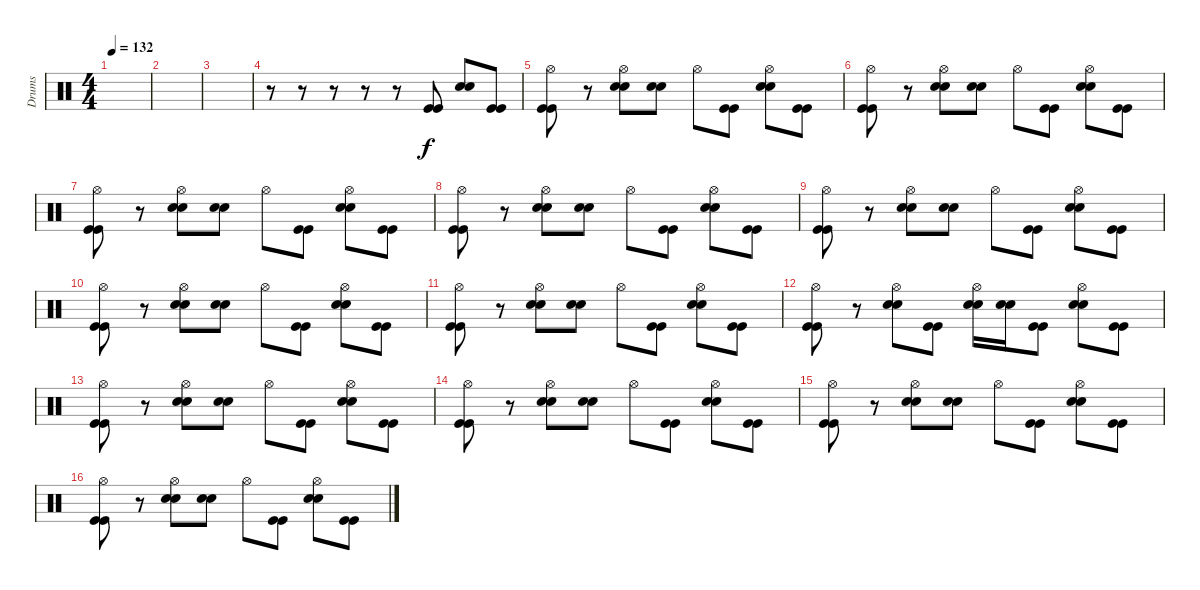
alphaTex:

\track ("Drums" "Drums") {instrument percussion}
\staff {score}
\articulation defaults
\ts (4 4)
\tempo 132
\clef neutral
\ks c
|
|
|
r.8 r.8 r.8 r.8 r.8 ("Kick (hit)" "Kick (hit)").8 ("Electric Snare (hit)" "Electric Snare (hit)").8 ("Kick (hit)" "Kick (hit)").8 |
("Hi-Hat (open)" "Kick (hit)" "Kick (hit)").8 r.8 ("Hi-Hat (open)" "Electric Snare (hit)" "Electric Snare (hit)").8 ("Electric Snare (hit)" "Electric Snare (hit)").8 "Hi-Hat (open)".8 ("Kick (hit)" "Kick (hit)").8 ("Hi-Hat (open)" "Electric Snare (hit)" "Electric Snare (hit)").8 ("Kick (hit)" "Kick (hit)").8 |
("Hi-Hat (open)" "Kick (hit)" "Kick (hit)").8 r.8 ("Hi-Hat (open)" "Electric Snare (hit)" "Electric Snare (hit)").8 ("Electric Snare (hit)" "Electric Snare (hit)").8 "Hi-Hat (open)".8 ("Kick (hit)" "Kick (hit)").8 ("Hi-Hat (open)" "Electric Snare (hit)" "Electric Snare (hit)").8 ("Kick (hit)" "Kick (hit)").8 |
("Hi-Hat (open)" "Kick (hit)" "Kick (hit)").8 r.8 ("Hi-Hat (open)" "Electric Snare (hit)" "Electric Snare (hit)").8 ("Electric Snare (hit)" "Electric Snare (hit)").8 "Hi-Hat (open)".8 ("Kick (hit)" "Kick (hit)").8 ("Hi-Hat (open)" "Electric Snare (hit)" "Electric Snare (hit)").8 ("Kick (hit)" "Kick (hit)").8 |
("Hi-Hat (open)" "Kick (hit)" "Kick (hit)").8 r.8 ("Hi-Hat (open)" "Electric Snare (hit)" "Electric Snare (hit)").8 ("Electric Snare (hit)" "Electric Snare (hit)").8 "Hi-Hat (open)".8 ("Kick (hit)" "Kick (hit)").8 ("Hi-Hat (open)" "Electric Snare (hit)" "Electric Snare (hit)").8 ("Kick (hit)" "Kick (hit)").8 |
("Hi-Hat (open)" "Kick (hit)" "Kick (hit)").8 r.8 ("Hi-Hat (open)" "Electric Snare (hit)" "Electric Snare (hit)").8 ("Electric Snare (hit)" "Electric Snare (hit)").8 "Hi-Hat (open)".8 ("Kick (hit)" "Kick (hit)").8 ("Hi-Hat (open)" "Electric Snare (hit)" "Electric Snare (hit)").8 ("Kick (hit)" "Kick (hit)").8 |
("Hi-Hat (open)" "Kick (hit)" "Kick (hit)").8 r.8 ("Hi-Hat (open)" "Electric Snare (hit)" "Electric Snare (hit)").8 ("Electric Snare (hit)" "Electric Snare (hit)").8 "Hi-Hat (open)".8 ("Kick (hit)" "Kick (hit)").8 ("Hi-Hat (open)" "Electric Snare (hit)" "Electric Snare (hit)").8 ("Kick (hit)" "Kick (hit)").8 |
("Hi-Hat (open)" "Kick (hit)" "Kick (hit)").8 r.8 ("Hi-Hat (open)" "Electric Snare (hit)" "Electric Snare (hit)").8 ("Electric Snare (hit)" "Electric Snare (hit)").8 "Hi-Hat (open)".8 ("Kick (hit)" "Kick (hit)").8 ("Hi-Hat (open)" "Electric Snare (hit)" "Electric Snare (hit)").8 ("Kick (hit)" "Kick (hit)").8 |
("Hi-Hat (open)" "Kick (hit)" "Kick (hit)").8 r.8 ("Hi-Hat (open)" "Electric Snare (hit)" "Electric Snare (hit)").8 ("Kick (hit)" "Kick (hit)").8 ("Hi-Hat (open)" "Electric Snare (hit)" "Electric Snare (hit)").16 ("Electric Snare (hit)" "Electric Snare (hit)").16 ("Kick (hit)" "Kick (hit)").8 ("Hi-Hat (open)" "Electric Snare (hit)" "Electric Snare (hit)").8 ("Kick (hit)" "Kick (hit)").8 |
("Hi-Hat (open)" "Kick (hit)" "Kick (hit)").8 r.8 ("Hi-Hat (open)" "Electric Snare (hit)" "Electric Snare (hit)").8 ("Electric Snare (hit)" "Electric Snare (hit)").8 "Hi-Hat (open)".8 ("Kick (hit)" "Kick (hit)").8 ("Hi-Hat (open)" "Electric Snare (hit)" "Electric Snare (hit)").8 ("Kick (hit)" "Kick (hit)").8 |
("Hi-Hat (open)" "Kick (hit)" "Kick (hit)").8 r.8 ("Hi-Hat (open)" "Electric Snare (hit)" "Electric Snare (hit)").8 ("Electric Snare (hit)" "Electric Snare (hit)").8 "Hi-Hat (open)".8 ("Kick (hit)" "Kick (hit)").8 ("Hi-Hat (open)" "Electric Snare (hit)" "Electric Snare (hit)").8 ("Kick (hit)" "Kick (hit)").8 |
("Hi-Hat (open)" "Kick (hit)" "Kick (hit)").8 r.8 ("Hi-Hat (open)" "Electric Snare (hit)" "Electric Snare (hit)").8 ("Electric Snare (hit)" "Electric Snare (hit)").8 "Hi-Hat (open)".8 ("Kick (hit)" "Kick (hit)").8 ("Hi-Hat (open)" "Electric Snare (hit)" "Electric Snare (hit)").8 ("Kick (hit)" "Kick (hit)").8 |
("Hi-Hat (open)" "Kick (hit)" "Kick (hit)").8 r.8 ("Hi-Hat (open)" "Electric Snare (hit)" "Electric Snare (hit)").8 ("Electric Snare (hit)" "Electric Snare (hit)").8 "Hi-Hat (open)".8 ("Kick (hit)" "Kick (hit)").8 ("Hi-Hat (open)" "Electric Snare (hit)" "Electric Snare (hit)").8 ("Kick (hit)" "Kick (hit)").8
